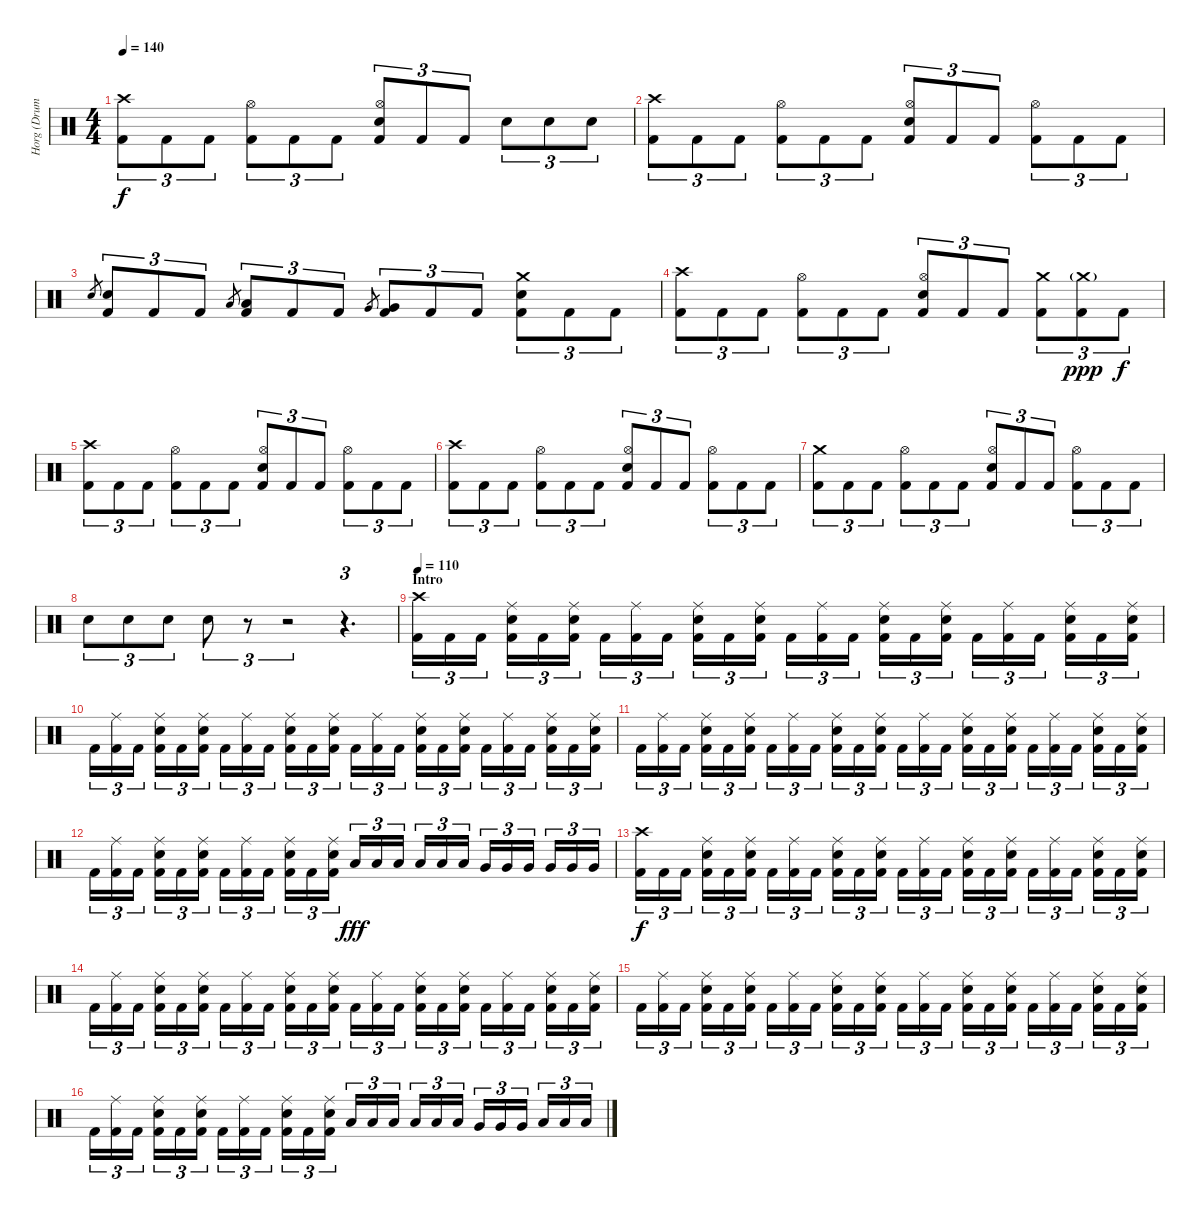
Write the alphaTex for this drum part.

\track ("Horg (Drums)" "Horg (Drum") {instrument percussion}
\staff {score}
\articulation defaults
\ts (4 4)
\tempo 140
\clef neutral
\ks c
("Crash high (hit)" "Kick (hit) 2").8{tu (3 2) dy f} "Kick (hit) 2".8{tu (3 2)} "Kick (hit) 2".8{tu (3 2)} ("Hi-Hat (open)" "Kick (hit) 2").8{tu (3 2)} "Kick (hit) 2".8{tu (3 2)} "Kick (hit) 2".8{tu (3 2)} ("Hi-Hat (open)" "Electric Snare (hit)" "Kick (hit) 2").8{tu (3 2)} "Kick (hit) 2".8{tu (3 2)} "Kick (hit) 2".8{tu (3 2)} "Electric Snare (hit)".8{tu (3 2)} "Electric Snare (hit)".8{tu (3 2)} "Electric Snare (hit)".8{tu (3 2)} |
("Crash high (hit)" "Kick (hit) 2").8{tu (3 2)} "Kick (hit) 2".8{tu (3 2)} "Kick (hit) 2".8{tu (3 2)} ("Hi-Hat (open)" "Kick (hit) 2").8{tu (3 2)} "Kick (hit) 2".8{tu (3 2)} "Kick (hit) 2".8{tu (3 2)} ("Hi-Hat (open)" "Electric Snare (hit)" "Kick (hit) 2").8{tu (3 2)} "Kick (hit) 2".8{tu (3 2)} "Kick (hit) 2".8{tu (3 2)} ("Hi-Hat (open)" "Kick (hit) 2").8{tu (3 2)} "Kick (hit) 2".8{tu (3 2)} "Kick (hit) 2".8{tu (3 2)} |
"Electric Snare (hit)".8{gr} ("Electric Snare (hit)" "Kick (hit) 2").8{tu (3 2)} "Kick (hit) 2".8{tu (3 2)} "Kick (hit) 2".8{tu (3 2)} "Low Tom (hit)".8{gr} ("Low Tom (hit)" "Kick (hit) 2").8{tu (3 2)} "Kick (hit) 2".8{tu (3 2)} "Kick (hit) 2".8{tu (3 2)} "Very Low Tom (hit)".8{gr} ("Very Low Tom (hit)" "Kick (hit) 2").8{tu (3 2)} "Kick (hit) 2".8{tu (3 2)} "Kick (hit) 2".8{tu (3 2)} ("Crash medium (hit)" "Electric Snare (hit)" "Kick (hit) 2").8{tu (3 2)} "Kick (hit) 2".8{tu (3 2)} "Kick (hit) 2".8{tu (3 2)} |
("Crash high (hit)" "Kick (hit) 2").8{tu (3 2)} "Kick (hit) 2".8{tu (3 2)} "Kick (hit) 2".8{tu (3 2)} ("Hi-Hat (open)" "Kick (hit) 2").8{tu (3 2)} "Kick (hit) 2".8{tu (3 2)} "Kick (hit) 2".8{tu (3 2)} ("Hi-Hat (open)" "Electric Snare (hit)" "Kick (hit) 2").8{tu (3 2)} "Kick (hit) 2".8{tu (3 2)} "Kick (hit) 2".8{tu (3 2)} ("Crash medium (hit)" "Kick (hit) 2").8{tu (3 2)} ("Crash medium (hit)"{g} "Kick (hit) 2").8{tu (3 2) dy ppp} "Kick (hit) 2".8{tu (3 2) dy f} |
("Crash high (hit)" "Kick (hit) 2").8{tu (3 2)} "Kick (hit) 2".8{tu (3 2)} "Kick (hit) 2".8{tu (3 2)} ("Hi-Hat (open)" "Kick (hit) 2").8{tu (3 2)} "Kick (hit) 2".8{tu (3 2)} "Kick (hit) 2".8{tu (3 2)} ("Hi-Hat (open)" "Electric Snare (hit)" "Kick (hit) 2").8{tu (3 2)} "Kick (hit) 2".8{tu (3 2)} "Kick (hit) 2".8{tu (3 2)} ("Hi-Hat (open)" "Kick (hit) 2").8{tu (3 2)} "Kick (hit) 2".8{tu (3 2)} "Kick (hit) 2".8{tu (3 2)} |
("Crash high (hit)" "Kick (hit) 2").8{tu (3 2)} "Kick (hit) 2".8{tu (3 2)} "Kick (hit) 2".8{tu (3 2)} ("Hi-Hat (open)" "Kick (hit) 2").8{tu (3 2)} "Kick (hit) 2".8{tu (3 2)} "Kick (hit) 2".8{tu (3 2)} ("Hi-Hat (open)" "Electric Snare (hit)" "Kick (hit) 2").8{tu (3 2)} "Kick (hit) 2".8{tu (3 2)} "Kick (hit) 2".8{tu (3 2)} ("Hi-Hat (open)" "Kick (hit) 2").8{tu (3 2)} "Kick (hit) 2".8{tu (3 2)} "Kick (hit) 2".8{tu (3 2)} |
("Crash medium (hit)" "Kick (hit) 2").8{tu (3 2)} "Kick (hit) 2".8{tu (3 2)} "Kick (hit) 2".8{tu (3 2)} ("Hi-Hat (open)" "Kick (hit) 2").8{tu (3 2)} "Kick (hit) 2".8{tu (3 2)} "Kick (hit) 2".8{tu (3 2)} ("Hi-Hat (open)" "Electric Snare (hit)" "Kick (hit) 2").8{tu (3 2)} "Kick (hit) 2".8{tu (3 2)} "Kick (hit) 2".8{tu (3 2)} ("Hi-Hat (open)" "Kick (hit) 2").8{tu (3 2)} "Kick (hit) 2".8{tu (3 2)} "Kick (hit) 2".8{tu (3 2)} |
"Electric Snare (hit)".8{tu (3 2)} "Electric Snare (hit)".8{tu (3 2)} "Electric Snare (hit)".8{tu (3 2)} "Electric Snare (hit)".8{tu (3 2)} r.8{tu (3 2)} r.2{tu (3 2)} r.4{d tu (3 2)} |
\section ("" "Intro")
\tempo 110
("Crash high (hit)" "Kick (hit) 2").16{tu (3 2)} "Kick (hit) 2".16{tu (3 2)} "Kick (hit) 2".16{tu (3 2)} ("Ride (middle)" "Electric Snare (hit)" "Kick (hit) 2").16{tu (3 2)} "Kick (hit) 2".16{tu (3 2)} ("Ride (middle)" "Electric Snare (hit)" "Kick (hit) 2").16{tu (3 2)} "Kick (hit) 2".16{tu (3 2)} ("Ride (middle)" "Kick (hit) 2").16{tu (3 2)} "Kick (hit) 2".16{tu (3 2)} ("Ride (middle)" "Electric Snare (hit)" "Kick (hit) 2").16{tu (3 2)} "Kick (hit) 2".16{tu (3 2)} ("Ride (middle)" "Electric Snare (hit)" "Kick (hit) 2").16{tu (3 2)} "Kick (hit) 2".16{tu (3 2)} ("Ride (middle)" "Kick (hit) 2").16{tu (3 2)} "Kick (hit) 2".16{tu (3 2)} ("Ride (middle)" "Electric Snare (hit)" "Kick (hit) 2").16{tu (3 2)} "Kick (hit) 2".16{tu (3 2)} ("Ride (middle)" "Electric Snare (hit)" "Kick (hit) 2").16{tu (3 2)} "Kick (hit) 2".16{tu (3 2)} ("Ride (middle)" "Kick (hit) 2").16{tu (3 2)} "Kick (hit) 2".16{tu (3 2)} ("Ride (middle)" "Electric Snare (hit)" "Kick (hit) 2").16{tu (3 2)} "Kick (hit) 2".16{tu (3 2)} ("Ride (middle)" "Electric Snare (hit)" "Kick (hit) 2").16{tu (3 2)} |
"Kick (hit) 2".16{tu (3 2)} ("Ride (middle)" "Kick (hit) 2").16{tu (3 2)} "Kick (hit) 2".16{tu (3 2)} ("Ride (middle)" "Electric Snare (hit)" "Kick (hit) 2").16{tu (3 2)} "Kick (hit) 2".16{tu (3 2)} ("Ride (middle)" "Electric Snare (hit)" "Kick (hit) 2").16{tu (3 2)} "Kick (hit) 2".16{tu (3 2)} ("Ride (middle)" "Kick (hit) 2").16{tu (3 2)} "Kick (hit) 2".16{tu (3 2)} ("Ride (middle)" "Electric Snare (hit)" "Kick (hit) 2").16{tu (3 2)} "Kick (hit) 2".16{tu (3 2)} ("Ride (middle)" "Electric Snare (hit)" "Kick (hit) 2").16{tu (3 2)} "Kick (hit) 2".16{tu (3 2)} ("Ride (middle)" "Kick (hit) 2").16{tu (3 2)} "Kick (hit) 2".16{tu (3 2)} ("Ride (middle)" "Electric Snare (hit)" "Kick (hit) 2").16{tu (3 2)} "Kick (hit) 2".16{tu (3 2)} ("Ride (middle)" "Electric Snare (hit)" "Kick (hit) 2").16{tu (3 2)} "Kick (hit) 2".16{tu (3 2)} ("Ride (middle)" "Kick (hit) 2").16{tu (3 2)} "Kick (hit) 2".16{tu (3 2)} ("Ride (middle)" "Electric Snare (hit)" "Kick (hit) 2").16{tu (3 2)} "Kick (hit) 2".16{tu (3 2)} ("Ride (middle)" "Electric Snare (hit)" "Kick (hit) 2").16{tu (3 2)} |
"Kick (hit) 2".16{tu (3 2)} ("Ride (middle)" "Kick (hit) 2").16{tu (3 2)} "Kick (hit) 2".16{tu (3 2)} ("Ride (middle)" "Electric Snare (hit)" "Kick (hit) 2").16{tu (3 2)} "Kick (hit) 2".16{tu (3 2)} ("Ride (middle)" "Electric Snare (hit)" "Kick (hit) 2").16{tu (3 2)} "Kick (hit) 2".16{tu (3 2)} ("Ride (middle)" "Kick (hit) 2").16{tu (3 2)} "Kick (hit) 2".16{tu (3 2)} ("Ride (middle)" "Electric Snare (hit)" "Kick (hit) 2").16{tu (3 2)} "Kick (hit) 2".16{tu (3 2)} ("Ride (middle)" "Electric Snare (hit)" "Kick (hit) 2").16{tu (3 2)} "Kick (hit) 2".16{tu (3 2)} ("Ride (middle)" "Kick (hit) 2").16{tu (3 2)} "Kick (hit) 2".16{tu (3 2)} ("Ride (middle)" "Electric Snare (hit)" "Kick (hit) 2").16{tu (3 2)} "Kick (hit) 2".16{tu (3 2)} ("Ride (middle)" "Electric Snare (hit)" "Kick (hit) 2").16{tu (3 2)} "Kick (hit) 2".16{tu (3 2)} ("Ride (middle)" "Kick (hit) 2").16{tu (3 2)} "Kick (hit) 2".16{tu (3 2)} ("Ride (middle)" "Electric Snare (hit)" "Kick (hit) 2").16{tu (3 2)} "Kick (hit) 2".16{tu (3 2)} ("Ride (middle)" "Electric Snare (hit)" "Kick (hit) 2").16{tu (3 2)} |
"Kick (hit) 2".16{tu (3 2)} ("Ride (middle)" "Kick (hit) 2").16{tu (3 2)} "Kick (hit) 2".16{tu (3 2)} ("Ride (middle)" "Electric Snare (hit)" "Kick (hit) 2").16{tu (3 2)} "Kick (hit) 2".16{tu (3 2)} ("Ride (middle)" "Electric Snare (hit)" "Kick (hit) 2").16{tu (3 2)} "Kick (hit) 2".16{tu (3 2)} ("Ride (middle)" "Kick (hit) 2").16{tu (3 2)} "Kick (hit) 2".16{tu (3 2)} ("Ride (middle)" "Electric Snare (hit)" "Kick (hit) 2").16{tu (3 2)} "Kick (hit) 2".16{tu (3 2)} ("Ride (middle)" "Electric Snare (hit)" "Kick (hit) 2").16{tu (3 2)} "Low Tom (hit)".16{tu (3 2) dy fff} "Low Tom (hit)".16{tu (3 2)} "Low Tom (hit)".16{tu (3 2)} "Low Tom (hit)".16{tu (3 2)} "Low Tom (hit)".16{tu (3 2)} "Low Tom (hit)".16{tu (3 2)} "Very Low Tom (hit)".16{tu (3 2)} "Very Low Tom (hit)".16{tu (3 2)} "Very Low Tom (hit)".16{tu (3 2)} "Very Low Tom (hit)".16{tu (3 2)} "Very Low Tom (hit)".16{tu (3 2)} "Very Low Tom (hit)".16{tu (3 2)} |
("Crash high (hit)" "Kick (hit) 2").16{tu (3 2) dy f} "Kick (hit) 2".16{tu (3 2)} "Kick (hit) 2".16{tu (3 2)} ("Ride (middle)" "Electric Snare (hit)" "Kick (hit) 2").16{tu (3 2)} "Kick (hit) 2".16{tu (3 2)} ("Ride (middle)" "Electric Snare (hit)" "Kick (hit) 2").16{tu (3 2)} "Kick (hit) 2".16{tu (3 2)} ("Ride (middle)" "Kick (hit) 2").16{tu (3 2)} "Kick (hit) 2".16{tu (3 2)} ("Ride (middle)" "Electric Snare (hit)" "Kick (hit) 2").16{tu (3 2)} "Kick (hit) 2".16{tu (3 2)} ("Ride (middle)" "Electric Snare (hit)" "Kick (hit) 2").16{tu (3 2)} "Kick (hit) 2".16{tu (3 2)} ("Ride (middle)" "Kick (hit) 2").16{tu (3 2)} "Kick (hit) 2".16{tu (3 2)} ("Ride (middle)" "Electric Snare (hit)" "Kick (hit) 2").16{tu (3 2)} "Kick (hit) 2".16{tu (3 2)} ("Ride (middle)" "Electric Snare (hit)" "Kick (hit) 2").16{tu (3 2)} "Kick (hit) 2".16{tu (3 2)} ("Ride (middle)" "Kick (hit) 2").16{tu (3 2)} "Kick (hit) 2".16{tu (3 2)} ("Ride (middle)" "Electric Snare (hit)" "Kick (hit) 2").16{tu (3 2)} "Kick (hit) 2".16{tu (3 2)} ("Ride (middle)" "Electric Snare (hit)" "Kick (hit) 2").16{tu (3 2)} |
"Kick (hit) 2".16{tu (3 2)} ("Ride (middle)" "Kick (hit) 2").16{tu (3 2)} "Kick (hit) 2".16{tu (3 2)} ("Ride (middle)" "Electric Snare (hit)" "Kick (hit) 2").16{tu (3 2)} "Kick (hit) 2".16{tu (3 2)} ("Ride (middle)" "Electric Snare (hit)" "Kick (hit) 2").16{tu (3 2)} "Kick (hit) 2".16{tu (3 2)} ("Ride (middle)" "Kick (hit) 2").16{tu (3 2)} "Kick (hit) 2".16{tu (3 2)} ("Ride (middle)" "Electric Snare (hit)" "Kick (hit) 2").16{tu (3 2)} "Kick (hit) 2".16{tu (3 2)} ("Ride (middle)" "Electric Snare (hit)" "Kick (hit) 2").16{tu (3 2)} "Kick (hit) 2".16{tu (3 2)} ("Ride (middle)" "Kick (hit) 2").16{tu (3 2)} "Kick (hit) 2".16{tu (3 2)} ("Ride (middle)" "Electric Snare (hit)" "Kick (hit) 2").16{tu (3 2)} "Kick (hit) 2".16{tu (3 2)} ("Ride (middle)" "Electric Snare (hit)" "Kick (hit) 2").16{tu (3 2)} "Kick (hit) 2".16{tu (3 2)} ("Ride (middle)" "Kick (hit) 2").16{tu (3 2)} "Kick (hit) 2".16{tu (3 2)} ("Ride (middle)" "Electric Snare (hit)" "Kick (hit) 2").16{tu (3 2)} "Kick (hit) 2".16{tu (3 2)} ("Ride (middle)" "Electric Snare (hit)" "Kick (hit) 2").16{tu (3 2)} |
"Kick (hit) 2".16{tu (3 2)} ("Ride (middle)" "Kick (hit) 2").16{tu (3 2)} "Kick (hit) 2".16{tu (3 2)} ("Ride (middle)" "Electric Snare (hit)" "Kick (hit) 2").16{tu (3 2)} "Kick (hit) 2".16{tu (3 2)} ("Ride (middle)" "Electric Snare (hit)" "Kick (hit) 2").16{tu (3 2)} "Kick (hit) 2".16{tu (3 2)} ("Ride (middle)" "Kick (hit) 2").16{tu (3 2)} "Kick (hit) 2".16{tu (3 2)} ("Ride (middle)" "Electric Snare (hit)" "Kick (hit) 2").16{tu (3 2)} "Kick (hit) 2".16{tu (3 2)} ("Ride (middle)" "Electric Snare (hit)" "Kick (hit) 2").16{tu (3 2)} "Kick (hit) 2".16{tu (3 2)} ("Ride (middle)" "Kick (hit) 2").16{tu (3 2)} "Kick (hit) 2".16{tu (3 2)} ("Ride (middle)" "Electric Snare (hit)" "Kick (hit) 2").16{tu (3 2)} "Kick (hit) 2".16{tu (3 2)} ("Ride (middle)" "Electric Snare (hit)" "Kick (hit) 2").16{tu (3 2)} "Kick (hit) 2".16{tu (3 2)} ("Ride (middle)" "Kick (hit) 2").16{tu (3 2)} "Kick (hit) 2".16{tu (3 2)} ("Ride (middle)" "Electric Snare (hit)" "Kick (hit) 2").16{tu (3 2)} "Kick (hit) 2".16{tu (3 2)} ("Ride (middle)" "Electric Snare (hit)" "Kick (hit) 2").16{tu (3 2)} |
"Kick (hit) 2".16{tu (3 2)} ("Ride (middle)" "Kick (hit) 2").16{tu (3 2)} "Kick (hit) 2".16{tu (3 2)} ("Ride (middle)" "Electric Snare (hit)" "Kick (hit) 2").16{tu (3 2)} "Kick (hit) 2".16{tu (3 2)} ("Ride (middle)" "Electric Snare (hit)" "Kick (hit) 2").16{tu (3 2)} "Kick (hit) 2".16{tu (3 2)} ("Ride (middle)" "Kick (hit) 2").16{tu (3 2)} "Kick (hit) 2".16{tu (3 2)} ("Ride (middle)" "Electric Snare (hit)" "Kick (hit) 2").16{tu (3 2)} "Kick (hit) 2".16{tu (3 2)} ("Ride (middle)" "Electric Snare (hit)" "Kick (hit) 2").16{tu (3 2)} "Low Tom (hit)".16{tu (3 2)} "Low Tom (hit)".16{tu (3 2)} "Low Tom (hit)".16{tu (3 2)} "Low Tom (hit)".16{tu (3 2)} "Low Tom (hit)".16{tu (3 2)} "Low Tom (hit)".16{tu (3 2)} "Very Low Tom (hit)".16{tu (3 2)} "Very Low Tom (hit)".16{tu (3 2)} "Very Low Tom (hit)".16{tu (3 2)} "Low Floor Tom (hit)".16{tu (3 2)} "Low Floor Tom (hit)".16{tu (3 2)} "Low Floor Tom (hit)".16{tu (3 2)}
